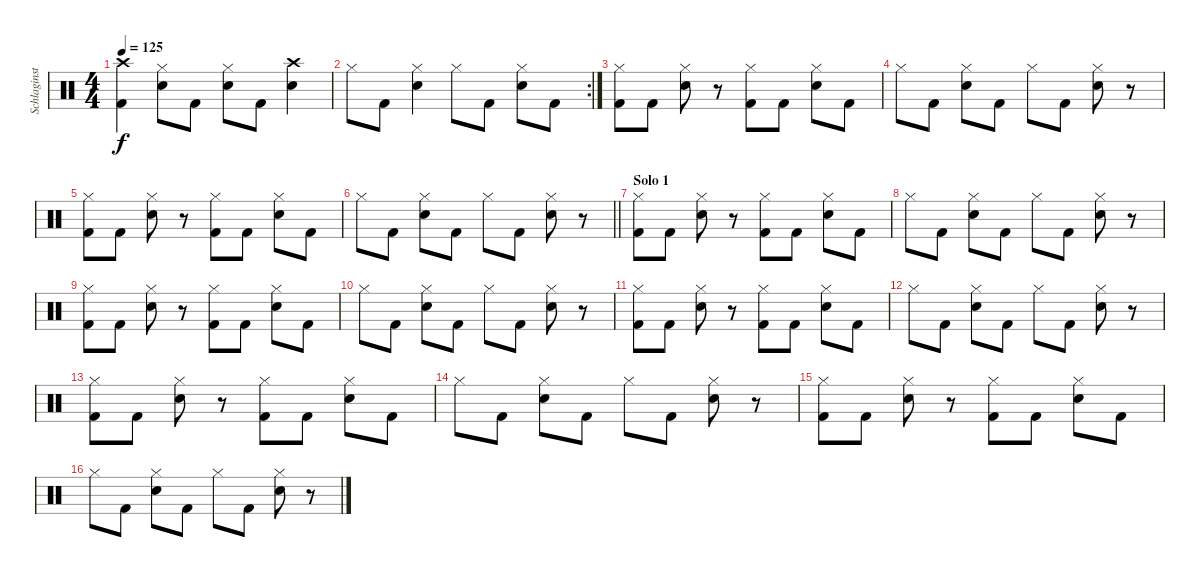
\track ("Schlaginstrumente - Auswahl" "Schlaginst") {instrument percussion}
\staff {score}
\articulation defaults
\ts (4 4)
\tempo 125
\clef neutral
\ks c
("Crash high (hit)" "Kick (hit) 2").4{dy f} ("Hi-Hat (closed)" "Snare (hit) 2").8 "Kick (hit) 2".8 ("Hi-Hat (closed)" "Snare (hit) 2").8 "Kick (hit) 2".8 ("Crash high (hit)" "Snare (hit) 2").4 |
\rc 2 "Hi-Hat (closed)".8 "Kick (hit) 2".8
("Hi-Hat (closed)" "Snare (hit) 2").4 "Hi-Hat (closed)".8 "Kick (hit) 2".8 ("Hi-Hat (closed)" "Snare (hit) 2").8 "Kick (hit) 2".8 |
("Hi-Hat (closed)" "Kick (hit) 2").8 "Kick (hit) 2".8 ("Hi-Hat (closed)" "Snare (hit) 2").8 r.8 ("Hi-Hat (closed)" "Kick (hit) 2").8 "Kick (hit) 2".8 ("Hi-Hat (closed)" "Snare (hit) 2").8 "Kick (hit) 2".8 |
"Hi-Hat (closed)".8 "Kick (hit) 2".8 ("Hi-Hat (closed)" "Snare (hit) 2").8 "Kick (hit) 2".8 "Hi-Hat (closed)".8 "Kick (hit) 2".8 ("Hi-Hat (closed)" "Snare (hit) 2").8 r.8 |
("Hi-Hat (closed)" "Kick (hit) 2").8 "Kick (hit) 2".8 ("Hi-Hat (closed)" "Snare (hit) 2").8 r.8 ("Hi-Hat (closed)" "Kick (hit) 2").8 "Kick (hit) 2".8 ("Hi-Hat (closed)" "Snare (hit) 2").8 "Kick (hit) 2".8 |
\barLineRight lightlight "Hi-Hat (closed)".8 "Kick (hit) 2".8
("Hi-Hat (closed)" "Snare (hit) 2").8 "Kick (hit) 2".8 "Hi-Hat (closed)".8 "Kick (hit) 2".8 ("Hi-Hat (closed)" "Snare (hit) 2").8 r.8 |
\section ("" "Solo 1")
("Hi-Hat (closed)" "Kick (hit) 2").8 "Kick (hit) 2".8 ("Hi-Hat (closed)" "Snare (hit) 2").8 r.8 ("Hi-Hat (closed)" "Kick (hit) 2").8 "Kick (hit) 2".8 ("Hi-Hat (closed)" "Snare (hit) 2").8 "Kick (hit) 2".8 |
"Hi-Hat (closed)".8 "Kick (hit) 2".8 ("Hi-Hat (closed)" "Snare (hit) 2").8 "Kick (hit) 2".8 "Hi-Hat (closed)".8 "Kick (hit) 2".8 ("Hi-Hat (closed)" "Snare (hit) 2").8 r.8 |
("Hi-Hat (closed)" "Kick (hit) 2").8 "Kick (hit) 2".8 ("Hi-Hat (closed)" "Snare (hit) 2").8 r.8 ("Hi-Hat (closed)" "Kick (hit) 2").8 "Kick (hit) 2".8 ("Hi-Hat (closed)" "Snare (hit) 2").8 "Kick (hit) 2".8 |
"Hi-Hat (closed)".8 "Kick (hit) 2".8 ("Hi-Hat (closed)" "Snare (hit) 2").8 "Kick (hit) 2".8 "Hi-Hat (closed)".8 "Kick (hit) 2".8 ("Hi-Hat (closed)" "Snare (hit) 2").8 r.8 |
("Hi-Hat (closed)" "Kick (hit) 2").8 "Kick (hit) 2".8 ("Hi-Hat (closed)" "Snare (hit) 2").8 r.8 ("Hi-Hat (closed)" "Kick (hit) 2").8 "Kick (hit) 2".8 ("Hi-Hat (closed)" "Snare (hit) 2").8 "Kick (hit) 2".8 |
"Hi-Hat (closed)".8 "Kick (hit) 2".8 ("Hi-Hat (closed)" "Snare (hit) 2").8 "Kick (hit) 2".8 "Hi-Hat (closed)".8 "Kick (hit) 2".8 ("Hi-Hat (closed)" "Snare (hit) 2").8 r.8 |
("Hi-Hat (closed)" "Kick (hit) 2").8 "Kick (hit) 2".8 ("Hi-Hat (closed)" "Snare (hit) 2").8 r.8 ("Hi-Hat (closed)" "Kick (hit) 2").8 "Kick (hit) 2".8 ("Hi-Hat (closed)" "Snare (hit) 2").8 "Kick (hit) 2".8 |
"Hi-Hat (closed)".8 "Kick (hit) 2".8 ("Hi-Hat (closed)" "Snare (hit) 2").8 "Kick (hit) 2".8 "Hi-Hat (closed)".8 "Kick (hit) 2".8 ("Hi-Hat (closed)" "Snare (hit) 2").8 r.8 |
("Hi-Hat (closed)" "Kick (hit) 2").8 "Kick (hit) 2".8 ("Hi-Hat (closed)" "Snare (hit) 2").8 r.8 ("Hi-Hat (closed)" "Kick (hit) 2").8 "Kick (hit) 2".8 ("Hi-Hat (closed)" "Snare (hit) 2").8 "Kick (hit) 2".8 |
"Hi-Hat (closed)".8 "Kick (hit) 2".8 ("Hi-Hat (closed)" "Snare (hit) 2").8 "Kick (hit) 2".8 "Hi-Hat (closed)".8 "Kick (hit) 2".8 ("Hi-Hat (closed)" "Snare (hit) 2").8 r.8
